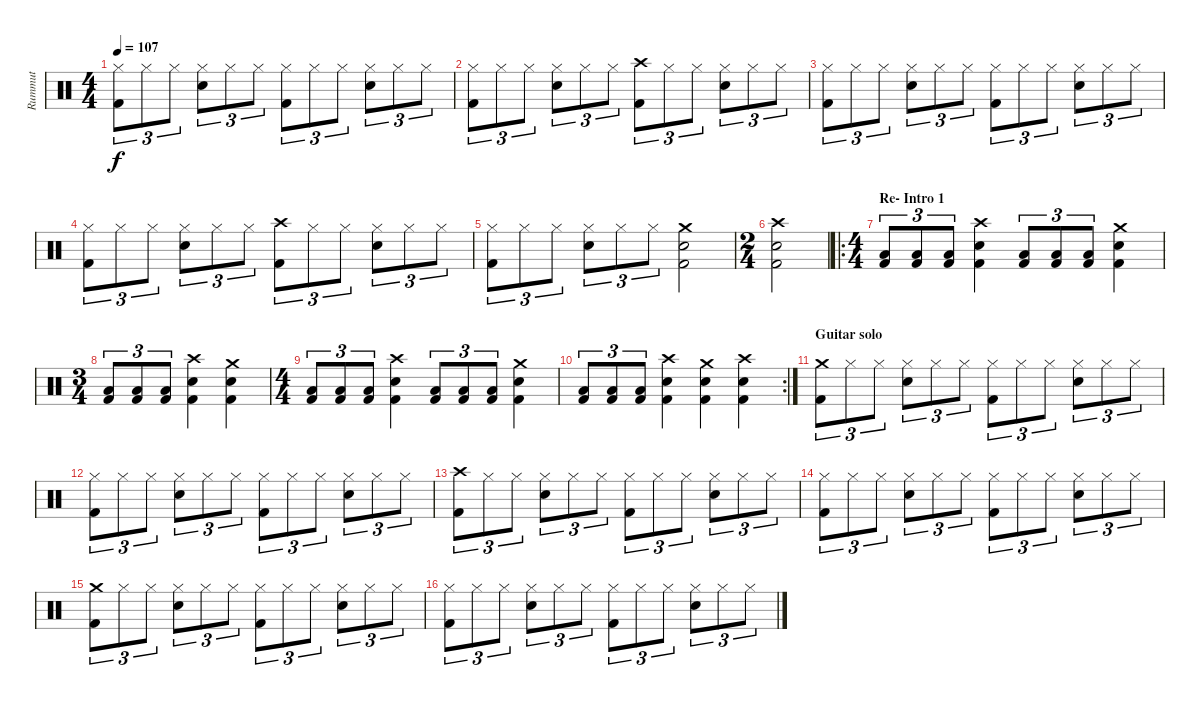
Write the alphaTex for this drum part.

\track ("Rummut" "Rummut") {instrument percussion}
\staff {score}
\articulation defaults
\ts (4 4)
\tempo 107
\clef neutral
\ks c
("Hi-Hat (closed)" "Kick (hit) 2").8{tu (3 2) dy f} "Hi-Hat (closed)".8{tu (3 2)} "Hi-Hat (closed)".8{tu (3 2)} ("Hi-Hat (closed)" "Snare (hit) 2").8{tu (3 2)} "Hi-Hat (closed)".8{tu (3 2)} "Hi-Hat (closed)".8{tu (3 2)} ("Hi-Hat (closed)" "Kick (hit) 2").8{tu (3 2)} "Hi-Hat (closed)".8{tu (3 2)} "Hi-Hat (closed)".8{tu (3 2)} ("Hi-Hat (closed)" "Snare (hit) 2").8{tu (3 2)} "Hi-Hat (closed)".8{tu (3 2)} "Hi-Hat (closed)".8{tu (3 2)} |
("Hi-Hat (closed)" "Kick (hit) 2").8{tu (3 2)} "Hi-Hat (closed)".8{tu (3 2)} "Hi-Hat (closed)".8{tu (3 2)} ("Hi-Hat (closed)" "Snare (hit) 2").8{tu (3 2)} "Hi-Hat (closed)".8{tu (3 2)} "Hi-Hat (closed)".8{tu (3 2)} ("Crash high (hit)" "Kick (hit) 2").8{tu (3 2)} "Hi-Hat (closed)".8{tu (3 2)} "Hi-Hat (closed)".8{tu (3 2)} ("Hi-Hat (closed)" "Snare (hit) 2").8{tu (3 2)} "Hi-Hat (closed)".8{tu (3 2)} "Hi-Hat (closed)".8{tu (3 2)} |
("Hi-Hat (closed)" "Kick (hit) 2").8{tu (3 2)} "Hi-Hat (closed)".8{tu (3 2)} "Hi-Hat (closed)".8{tu (3 2)} ("Hi-Hat (closed)" "Snare (hit) 2").8{tu (3 2)} "Hi-Hat (closed)".8{tu (3 2)} "Hi-Hat (closed)".8{tu (3 2)} ("Hi-Hat (closed)" "Kick (hit) 2").8{tu (3 2)} "Hi-Hat (closed)".8{tu (3 2)} "Hi-Hat (closed)".8{tu (3 2)} ("Hi-Hat (closed)" "Snare (hit) 2").8{tu (3 2)} "Hi-Hat (closed)".8{tu (3 2)} "Hi-Hat (closed)".8{tu (3 2)} |
("Hi-Hat (closed)" "Kick (hit) 2").8{tu (3 2)} "Hi-Hat (closed)".8{tu (3 2)} "Hi-Hat (closed)".8{tu (3 2)} ("Hi-Hat (closed)" "Snare (hit) 2").8{tu (3 2)} "Hi-Hat (closed)".8{tu (3 2)} "Hi-Hat (closed)".8{tu (3 2)} ("Crash high (hit)" "Kick (hit) 2").8{tu (3 2)} "Hi-Hat (closed)".8{tu (3 2)} "Hi-Hat (closed)".8{tu (3 2)} ("Hi-Hat (closed)" "Snare (hit) 2").8{tu (3 2)} "Hi-Hat (closed)".8{tu (3 2)} "Hi-Hat (closed)".8{tu (3 2)} |
("Hi-Hat (closed)" "Kick (hit) 2").8{tu (3 2)} "Hi-Hat (closed)".8{tu (3 2)} "Hi-Hat (closed)".8{tu (3 2)} ("Hi-Hat (closed)" "Snare (hit) 2").8{tu (3 2)} "Hi-Hat (closed)".8{tu (3 2)} "Hi-Hat (closed)".8{tu (3 2)} ("Crash medium (hit)" "Snare (hit) 2" "Kick (hit) 2").2 |
\ts (2 4)
("Crash high (hit)" "Snare (hit) 2" "Kick (hit) 2").2 |
\ro
\ts (4 4)
\section ("" "Re- Intro 1")
("Low Floor Tom (hit)" "Kick (hit) 2").8{tu (3 2)} ("Low Floor Tom (hit)" "Kick (hit) 2").8{tu (3 2)} ("Low Floor Tom (hit)" "Kick (hit) 2").8{tu (3 2)} ("Crash high (hit)" "Snare (hit) 2" "Kick (hit) 2").4 ("Low Floor Tom (hit)" "Kick (hit) 2").8{tu (3 2)} ("Low Floor Tom (hit)" "Kick (hit) 2").8{tu (3 2)} ("Low Floor Tom (hit)" "Kick (hit) 2").8{tu (3 2)} ("Crash medium (hit)" "Snare (hit) 2" "Kick (hit) 2").4 |
\ts (3 4)
("Low Floor Tom (hit)" "Kick (hit) 2").8{tu (3 2)} ("Low Floor Tom (hit)" "Kick (hit) 2").8{tu (3 2)} ("Low Floor Tom (hit)" "Kick (hit) 2").8{tu (3 2)} ("Crash high (hit)" "Snare (hit) 2" "Kick (hit) 2").4 ("Crash medium (hit)" "Snare (hit) 2" "Kick (hit) 2").4 |
\ts (4 4)
("Low Floor Tom (hit)" "Kick (hit) 2").8{tu (3 2)} ("Low Floor Tom (hit)" "Kick (hit) 2").8{tu (3 2)} ("Low Floor Tom (hit)" "Kick (hit) 2").8{tu (3 2)} ("Crash high (hit)" "Snare (hit) 2" "Kick (hit) 2").4 ("Low Floor Tom (hit)" "Kick (hit) 2").8{tu (3 2)} ("Low Floor Tom (hit)" "Kick (hit) 2").8{tu (3 2)} ("Low Floor Tom (hit)" "Kick (hit) 2").8{tu (3 2)} ("Crash medium (hit)" "Snare (hit) 2" "Kick (hit) 2").4 |
\rc 2
("Low Floor Tom (hit)" "Kick (hit) 2").8{tu (3 2)} ("Low Floor Tom (hit)" "Kick (hit) 2").8{tu (3 2)} ("Low Floor Tom (hit)" "Kick (hit) 2").8{tu (3 2)} ("Crash high (hit)" "Snare (hit) 2" "Kick (hit) 2").4 ("Crash medium (hit)" "Snare (hit) 2" "Kick (hit) 2").4 ("Crash high (hit)" "Snare (hit) 2" "Kick (hit) 2").4 |
\section ("" "Guitar solo")
("Crash medium (hit)" "Kick (hit) 2").8{tu (3 2)} "Hi-Hat (closed)".8{tu (3 2)} "Hi-Hat (closed)".8{tu (3 2)} ("Hi-Hat (closed)" "Snare (hit) 2").8{tu (3 2)} "Hi-Hat (closed)".8{tu (3 2)} "Hi-Hat (closed)".8{tu (3 2)} ("Hi-Hat (closed)" "Kick (hit) 2").8{tu (3 2)} "Hi-Hat (closed)".8{tu (3 2)} "Hi-Hat (closed)".8{tu (3 2)} ("Hi-Hat (closed)" "Snare (hit) 2").8{tu (3 2)} "Hi-Hat (closed)".8{tu (3 2)} "Hi-Hat (closed)".8{tu (3 2)} |
("Hi-Hat (closed)" "Kick (hit) 2").8{tu (3 2)} "Hi-Hat (closed)".8{tu (3 2)} "Hi-Hat (closed)".8{tu (3 2)} ("Hi-Hat (closed)" "Snare (hit) 2").8{tu (3 2)} "Hi-Hat (closed)".8{tu (3 2)} "Hi-Hat (closed)".8{tu (3 2)} ("Hi-Hat (closed)" "Kick (hit) 2").8{tu (3 2)} "Hi-Hat (closed)".8{tu (3 2)} "Hi-Hat (closed)".8{tu (3 2)} ("Hi-Hat (closed)" "Snare (hit) 2").8{tu (3 2)} "Hi-Hat (closed)".8{tu (3 2)} "Hi-Hat (closed)".8{tu (3 2)} |
("Crash high (hit)" "Kick (hit) 2").8{tu (3 2)} "Hi-Hat (closed)".8{tu (3 2)} "Hi-Hat (closed)".8{tu (3 2)} ("Hi-Hat (closed)" "Snare (hit) 2").8{tu (3 2)} "Hi-Hat (closed)".8{tu (3 2)} "Hi-Hat (closed)".8{tu (3 2)} ("Hi-Hat (closed)" "Kick (hit) 2").8{tu (3 2)} "Hi-Hat (closed)".8{tu (3 2)} "Hi-Hat (closed)".8{tu (3 2)} ("Hi-Hat (closed)" "Snare (hit) 2").8{tu (3 2)} "Hi-Hat (closed)".8{tu (3 2)} "Hi-Hat (closed)".8{tu (3 2)} |
("Hi-Hat (closed)" "Kick (hit) 2").8{tu (3 2)} "Hi-Hat (closed)".8{tu (3 2)} "Hi-Hat (closed)".8{tu (3 2)} ("Hi-Hat (closed)" "Snare (hit) 2").8{tu (3 2)} "Hi-Hat (closed)".8{tu (3 2)} "Hi-Hat (closed)".8{tu (3 2)} ("Hi-Hat (closed)" "Kick (hit) 2").8{tu (3 2)} "Hi-Hat (closed)".8{tu (3 2)} "Hi-Hat (closed)".8{tu (3 2)} ("Hi-Hat (closed)" "Snare (hit) 2").8{tu (3 2)} "Hi-Hat (closed)".8{tu (3 2)} "Hi-Hat (closed)".8{tu (3 2)} |
("Crash medium (hit)" "Kick (hit) 2").8{tu (3 2)} "Hi-Hat (closed)".8{tu (3 2)} "Hi-Hat (closed)".8{tu (3 2)} ("Hi-Hat (closed)" "Snare (hit) 2").8{tu (3 2)} "Hi-Hat (closed)".8{tu (3 2)} "Hi-Hat (closed)".8{tu (3 2)} ("Hi-Hat (closed)" "Kick (hit) 2").8{tu (3 2)} "Hi-Hat (closed)".8{tu (3 2)} "Hi-Hat (closed)".8{tu (3 2)} ("Hi-Hat (closed)" "Snare (hit) 2").8{tu (3 2)} "Hi-Hat (closed)".8{tu (3 2)} "Hi-Hat (closed)".8{tu (3 2)} |
("Hi-Hat (closed)" "Kick (hit) 2").8{tu (3 2)} "Hi-Hat (closed)".8{tu (3 2)} "Hi-Hat (closed)".8{tu (3 2)} ("Hi-Hat (closed)" "Snare (hit) 2").8{tu (3 2)} "Hi-Hat (closed)".8{tu (3 2)} "Hi-Hat (closed)".8{tu (3 2)} ("Hi-Hat (closed)" "Kick (hit) 2").8{tu (3 2)} "Hi-Hat (closed)".8{tu (3 2)} "Hi-Hat (closed)".8{tu (3 2)} ("Hi-Hat (closed)" "Snare (hit) 2").8{tu (3 2)} "Hi-Hat (closed)".8{tu (3 2)} "Hi-Hat (closed)".8{tu (3 2)}
